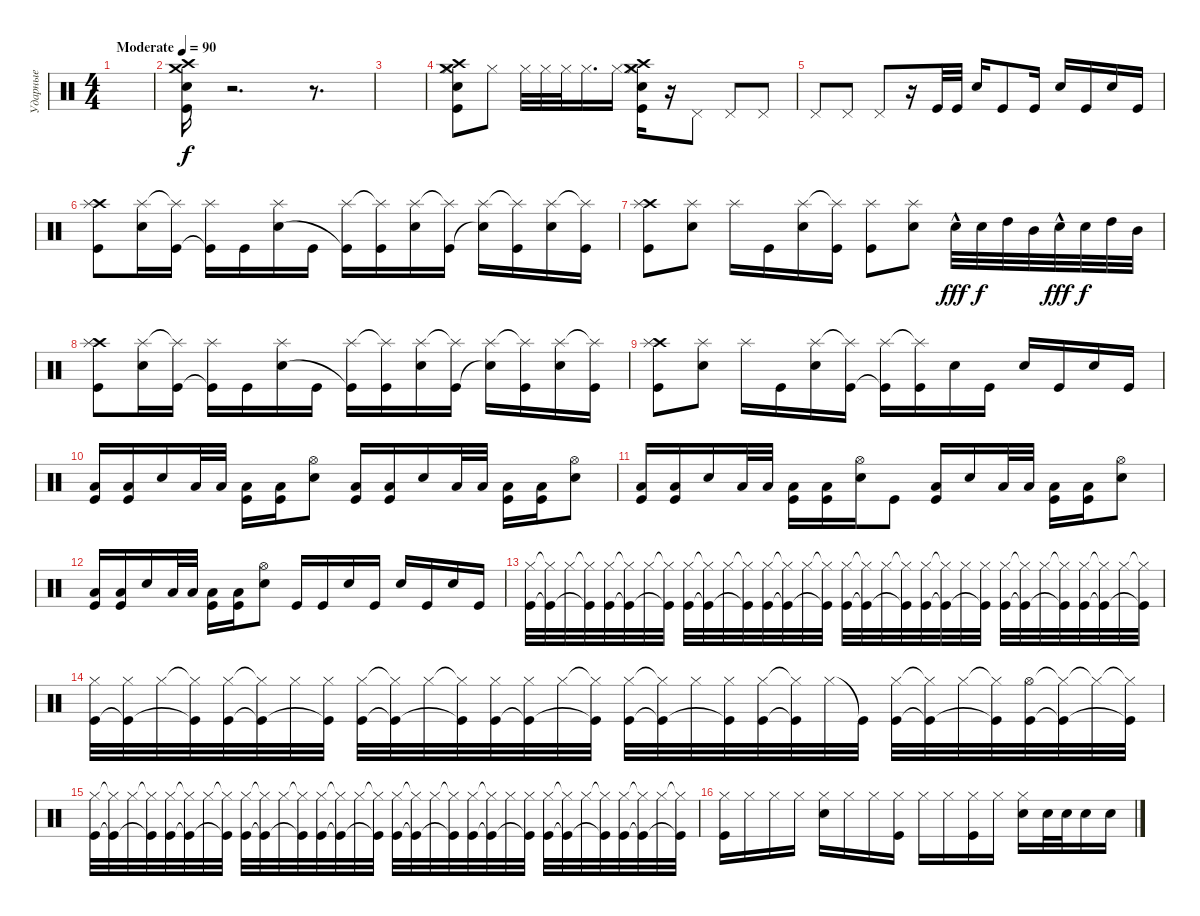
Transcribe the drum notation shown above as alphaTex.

\track ("Ударные" "Ударные") {instrument percussion}
\staff {score}
\articulation defaults
\ts (4 4)
\tempo (90 "Moderate")
\clef neutral
\ks c
|
("Crash high (hit)" "Crash medium (hit)" "Electric Snare (hit)" "Kick (hit)").16 r.2{d} r.8{d} |
|
("Crash high (hit)" "Crash medium (hit)" "Hi-Hat (closed)" "Electric Snare (hit)" "Kick (hit)").8 "Hi-Hat (closed)".8 "Hi-Hat (closed)".32 "Hi-Hat (closed)".32 "Hi-Hat (closed)".32 "Hi-Hat (closed)".16{d} "Hi-Hat (closed)".16 ("Crash high (hit)" "Crash medium (hit)" "Hi-Hat (closed)" "Electric Snare (hit)" "Kick (hit)").16 r.16 "Pedal Hi-Hat (hit)".8 "Pedal Hi-Hat (hit)".8 "Pedal Hi-Hat (hit)".8 |
"Pedal Hi-Hat (hit)".8 "Pedal Hi-Hat (hit)".8 "Pedal Hi-Hat (hit)".8 r.16 "Kick (hit)".32 "Kick (hit)".32 "Electric Snare (hit)".16 "Kick (hit)".8 "Kick (hit)".16 "Electric Snare (hit)".16 "Kick (hit)".16 "Electric Snare (hit)".16 "Kick (hit)".16 |
("Crash high (hit)" "Splash (hit)" "Kick (hit)").8 ("Splash (hit)" "Electric Snare (hit)").16 ("Splash (hit)"{t} "Kick (hit)").16 ("Splash (hit)" "Kick (hit)"{t}).16 "Kick (hit)".16 ("Splash (hit)" "Electric Snare (hit)").16 "Kick (hit)".16 ("Splash (hit)" "Kick (hit)"{t}).16 ("Splash (hit)"{t} "Kick (hit)").16 ("Splash (hit)" "Electric Snare (hit)").16 ("Splash (hit)"{t} "Kick (hit)").16 ("Splash (hit)" "Snare (hit)"{t}).16 ("Splash (hit)"{t} "Kick (hit)").16 ("Splash (hit)" "Electric Snare (hit)").16 ("Splash (hit)"{t} "Kick (hit)").16 |
("Crash high (hit)" "Splash (hit)" "Kick (hit)").8 ("Splash (hit)" "Electric Snare (hit)").8 "Splash (hit)".16 "Kick (hit)".16 ("Splash (hit)" "Electric Snare (hit)").16 ("Splash (hit)"{t} "Kick (hit)").16 ("Splash (hit)" "Kick (hit)").8 ("Splash (hit)" "Electric Snare (hit)").8 "Electric Snare (hit)"{hac}.32{dy fff} "Electric Snare (hit)".32{dy f} "High Tom (hit)".32 "Mid Tom (hit)".32 "Electric Snare (hit)"{hac}.32{dy fff} "Electric Snare (hit)".32{dy f} "High Tom (hit)".32 "Mid Tom (hit)".32 |
("Crash high (hit)" "Splash (hit)" "Kick (hit)").8 ("Splash (hit)" "Electric Snare (hit)").16 ("Splash (hit)"{t} "Kick (hit)").16 ("Splash (hit)" "Kick (hit)"{t}).16 "Kick (hit)".16 ("Splash (hit)" "Electric Snare (hit)").16 "Kick (hit)".16 ("Splash (hit)" "Kick (hit)"{t}).16 ("Splash (hit)"{t} "Kick (hit)").16 ("Splash (hit)" "Electric Snare (hit)").16 ("Splash (hit)"{t} "Kick (hit)").16 ("Splash (hit)" "Snare (hit)"{t}).16 ("Splash (hit)"{t} "Kick (hit)").16 ("Splash (hit)" "Electric Snare (hit)").16 ("Splash (hit)"{t} "Kick (hit)").16 |
("Crash high (hit)" "Splash (hit)" "Kick (hit)").8 ("Splash (hit)" "Electric Snare (hit)").8 "Splash (hit)".16 "Kick (hit)".16 ("Splash (hit)" "Electric Snare (hit)").16 ("Splash (hit)"{t} "Kick (hit)").16 ("Splash (hit)" "Kick (hit)"{t}).16 ("Splash (hit)"{t} "Kick (hit)").16 "Electric Snare (hit)".16 "Kick (hit)".16 "Electric Snare (hit)".16 "Kick (hit)".16 "Electric Snare (hit)".16 "Kick (hit)".16 |
("Low Tom (hit)" "Kick (hit)").16 ("Low Tom (hit)" "Kick (hit)").16 "Electric Snare (hit)".16 "Low Tom (hit)".32 "Low Tom (hit)".32 ("Low Tom (hit)" "Kick (hit)").16 ("Low Tom (hit)" "Kick (hit)").16 ("Hi-Hat (open)" "Electric Snare (hit)").8 ("Low Tom (hit)" "Kick (hit)").16 ("Low Tom (hit)" "Kick (hit)").16 "Electric Snare (hit)".16 "Low Tom (hit)".32 "Low Tom (hit)".32 ("Low Tom (hit)" "Kick (hit)").16 ("Low Tom (hit)" "Kick (hit)").16 ("Hi-Hat (open)" "Electric Snare (hit)").8 |
("Low Tom (hit)" "Kick (hit)").16 ("Low Tom (hit)" "Kick (hit)").16 "Electric Snare (hit)".16 "Low Tom (hit)".32 "Low Tom (hit)".32 ("Low Tom (hit)" "Kick (hit)").16 ("Low Tom (hit)" "Kick (hit)").16 ("Hi-Hat (open)" "Electric Snare (hit)").16 "Kick (hit)".8 ("Low Tom (hit)" "Kick (hit)").16 "Electric Snare (hit)".16 "Low Tom (hit)".32 "Low Tom (hit)".32 ("Low Tom (hit)" "Kick (hit)").16 ("Low Tom (hit)" "Kick (hit)").16 ("Hi-Hat (open)" "Electric Snare (hit)").8 |
("Low Tom (hit)" "Kick (hit)").16 ("Low Tom (hit)" "Kick (hit)").16 "Electric Snare (hit)".16 "Low Tom (hit)".32 "Low Tom (hit)".32 ("Low Tom (hit)" "Kick (hit)").16 ("Low Tom (hit)" "Kick (hit)").16 ("Hi-Hat (open)" "Electric Snare (hit)").8 "Kick (hit)".16 "Kick (hit)".16 "Electric Snare (hit)".16 "Kick (hit)".16 "Electric Snare (hit)".16 "Kick (hit)".16 "Electric Snare (hit)".16 "Kick (hit)".16 |
("Hi-Hat (closed)" "Kick (hit)").32 ("Hi-Hat (closed)"{t} "Kick (hit)"{t}).32 "Hi-Hat (closed)".32 ("Hi-Hat (closed)"{t} "Kick (hit)"{t}).32 ("Hi-Hat (closed)" "Kick (hit)").32 ("Hi-Hat (closed)"{t} "Kick (hit)"{t}).32 "Hi-Hat (closed)".32 ("Hi-Hat (closed)"{t} "Kick (hit)"{t}).32 ("Hi-Hat (closed)" "Kick (hit)").32 ("Hi-Hat (closed)"{t} "Kick (hit)"{t}).32 "Hi-Hat (closed)".32 ("Hi-Hat (closed)"{t} "Kick (hit)"{t}).32 ("Hi-Hat (closed)" "Kick (hit)").32 ("Hi-Hat (closed)"{t} "Kick (hit)"{t}).32 "Hi-Hat (closed)".32 ("Hi-Hat (closed)"{t} "Kick (hit)"{t}).32 ("Hi-Hat (closed)" "Kick (hit)").32 ("Hi-Hat (closed)"{t} "Kick (hit)"{t}).32 "Hi-Hat (closed)".32 ("Hi-Hat (closed)"{t} "Kick (hit)"{t}).32 ("Hi-Hat (closed)" "Kick (hit)").32 ("Hi-Hat (closed)"{t} "Kick (hit)"{t}).32 "Hi-Hat (closed)".32 ("Hi-Hat (closed)" "Kick (hit)"{t}).32 ("Hi-Hat (closed)" "Kick (hit)").32 ("Hi-Hat (closed)"{t} "Kick (hit)"{t}).32 "Hi-Hat (closed)".32 ("Hi-Hat (closed)"{t} "Kick (hit)"{t}).32 ("Hi-Hat (closed)" "Kick (hit)").32 ("Hi-Hat (closed)"{t} "Kick (hit)"{t}).32 "Hi-Hat (closed)".32 ("Hi-Hat (closed)"{t} "Kick (hit)"{t}).32 |
("Hi-Hat (closed)" "Kick (hit)").32 ("Hi-Hat (closed)" "Kick (hit)"{t}).32 "Hi-Hat (closed)".32 ("Hi-Hat (closed)"{t} "Kick (hit)"{t}).32 ("Hi-Hat (closed)" "Kick (hit)").32 ("Hi-Hat (closed)"{t} "Kick (hit)"{t}).32 "Hi-Hat (closed)".32 ("Hi-Hat (closed)" "Kick (hit)"{t}).32 ("Hi-Hat (closed)" "Kick (hit)").32 ("Hi-Hat (closed)"{t} "Kick (hit)"{t}).32 "Hi-Hat (closed)".32 ("Hi-Hat (closed)"{t} "Kick (hit)"{t}).32 ("Hi-Hat (closed)" "Kick (hit)").32 ("Hi-Hat (closed)" "Kick (hit)"{t}).32 "Hi-Hat (closed)".32 ("Hi-Hat (closed)"{t} "Kick (hit)"{t}).32 ("Hi-Hat (closed)" "Kick (hit)").32 ("Hi-Hat (closed)"{t} "Kick (hit)"{t}).32 "Hi-Hat (closed)".32 ("Hi-Hat (closed)" "Kick (hit)"{t}).32 ("Hi-Hat (closed)" "Kick (hit)").32 ("Hi-Hat (closed)"{t} "Kick (hit)"{t}).32 "Hi-Hat (closed)".32 "Kick (hit)"{t}.32 ("Hi-Hat (closed)" "Kick (hit)").32 ("Hi-Hat (closed)"{t} "Kick (hit)"{t}).32 "Hi-Hat (closed)".32 ("Hi-Hat (closed)"{t} "Kick (hit)"{t}).32 ("Hi-Hat (open)" "Kick (hit)").32 ("Hi-Hat (closed)"{t} "Kick (hit)"{t}).32 "Hi-Hat (closed)"{t}.32 ("Hi-Hat (closed)"{t} "Kick (hit)"{t}).32 |
("Hi-Hat (closed)" "Kick (hit)").32 ("Hi-Hat (closed)"{t} "Kick (hit)"{t}).32 "Hi-Hat (closed)".32 ("Hi-Hat (closed)"{t} "Kick (hit)"{t}).32 ("Hi-Hat (closed)" "Kick (hit)").32 ("Hi-Hat (closed)"{t} "Kick (hit)"{t}).32 "Hi-Hat (closed)".32 ("Hi-Hat (closed)"{t} "Kick (hit)"{t}).32 ("Hi-Hat (closed)" "Kick (hit)").32 ("Hi-Hat (closed)"{t} "Kick (hit)"{t}).32 "Hi-Hat (closed)".32 ("Hi-Hat (closed)"{t} "Kick (hit)"{t}).32 ("Hi-Hat (closed)" "Kick (hit)").32 ("Hi-Hat (closed)"{t} "Kick (hit)"{t}).32 "Hi-Hat (closed)".32 ("Hi-Hat (closed)"{t} "Kick (hit)"{t}).32 ("Hi-Hat (closed)" "Kick (hit)").32 ("Hi-Hat (closed)"{t} "Kick (hit)"{t}).32 "Hi-Hat (closed)".32 ("Hi-Hat (closed)"{t} "Kick (hit)"{t}).32 ("Hi-Hat (closed)" "Kick (hit)").32 ("Hi-Hat (closed)"{t} "Kick (hit)"{t}).32 "Hi-Hat (closed)".32 ("Hi-Hat (closed)" "Kick (hit)"{t}).32 ("Hi-Hat (closed)" "Kick (hit)").32 ("Hi-Hat (closed)"{t} "Kick (hit)"{t}).32 "Hi-Hat (closed)".32 ("Hi-Hat (closed)"{t} "Kick (hit)"{t}).32 ("Hi-Hat (closed)" "Kick (hit)").32 ("Hi-Hat (closed)"{t} "Kick (hit)"{t}).32 "Hi-Hat (closed)".32 ("Hi-Hat (closed)"{t} "Kick (hit)"{t}).32 |
("Hi-Hat (closed)" "Kick (hit)").16 "Hi-Hat (closed)".16 "Hi-Hat (closed)".16 "Hi-Hat (closed)".16 ("Hi-Hat (closed)" "Electric Snare (hit)").16 "Hi-Hat (closed)".16 "Hi-Hat (closed)".16 ("Hi-Hat (closed)" "Kick (hit)").16 "Hi-Hat (closed)".16 "Hi-Hat (closed)".16 ("Hi-Hat (closed)" "Kick (hit)").16 "Hi-Hat (closed)".16 ("Hi-Hat (closed)" "Electric Snare (hit)").16 "Electric Snare (hit)".32 "Electric Snare (hit)".32 "Electric Snare (hit)".16 "Electric Snare (hit)".16
